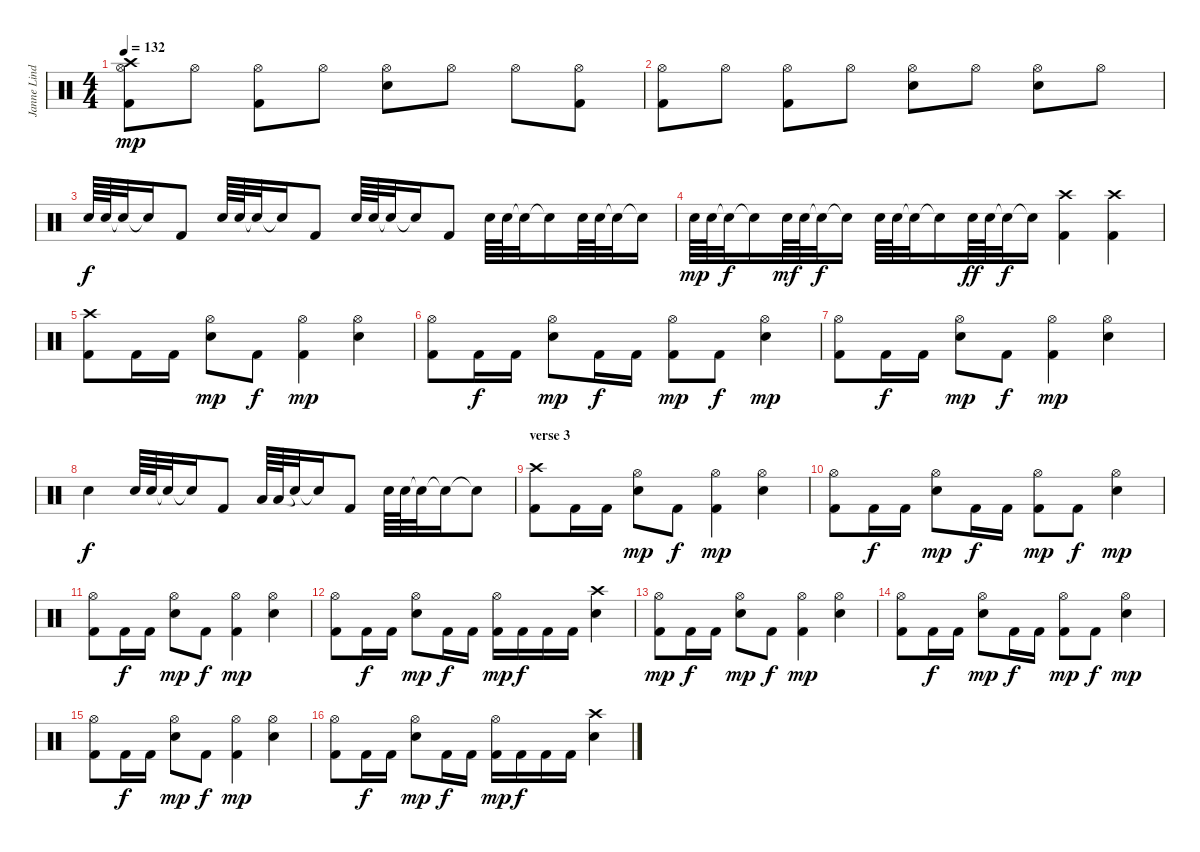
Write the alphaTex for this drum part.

\track ("Janne Lindh" "Janne Lind") {instrument percussion}
\staff {score}
\articulation defaults
\ts (4 4)
\tempo 132
\clef neutral
\ks c
("Kick (hit) 2" "Hi-Hat (open)" "Crash high (hit)").8{dy mp} "Hi-Hat (open)".8 ("Kick (hit) 2" "Hi-Hat (open)").8 "Hi-Hat (open)".8 ("Hi-Hat (open)" "Snare (hit) 2").8 "Hi-Hat (open)".8 "Hi-Hat (open)".8 ("Kick (hit) 2" "Hi-Hat (open)").8 |
("Kick (hit) 2" "Hi-Hat (open)").8 "Hi-Hat (open)".8 ("Kick (hit) 2" "Hi-Hat (open)").8 "Hi-Hat (open)".8 ("Hi-Hat (open)" "Snare (hit) 2").8 "Hi-Hat (open)".8 ("Hi-Hat (open)" "Snare (hit) 2").8 "Hi-Hat (open)".8 |
"Snare (hit) 2".64{dy f} "Snare (hit) 2".64 "Snare (hit)"{t}.32 "Snare (hit)"{t}.16 "Kick (hit) 2".8 "Snare (hit) 2".64 "Snare (hit) 2".64 "Snare (hit)"{t}.32 "Snare (hit)"{t}.16 "Kick (hit) 2".8 "Snare (hit) 2".64 "Snare (hit) 2".64 "Snare (hit)"{t}.32 "Snare (hit)"{t}.16 "Kick (hit) 2".8 "Snare (hit) 2".64 "Snare (hit) 2".64 "Snare (hit)"{t}.32 "Snare (hit)"{t}.16 "Snare (hit) 2".64 "Snare (hit) 2".64 "Snare (hit)"{t}.32 "Snare (hit)"{t}.16 |
"Snare (hit) 2".64{dy mp} "Snare (hit) 2".64 "Snare (hit)"{t}.32{dy f} "Snare (hit)"{t}.16 "Snare (hit) 2".64{dy mf} "Snare (hit) 2".64 "Snare (hit)"{t}.32{dy f} "Snare (hit)"{t}.16 "Snare (hit) 2".64 "Snare (hit) 2".64 "Snare (hit)"{t}.32 "Snare (hit)"{t}.16 "Snare (hit) 2".64{dy ff} "Snare (hit) 2".64 "Snare (hit)"{t}.32{dy f} "Snare (hit)"{t}.16 ("Kick (hit) 2" "Crash high (hit)").4 ("Kick (hit) 2" "Crash high (hit)").4 |
("Kick (hit) 2" "Crash high (hit)").8 "Kick (hit) 2".16 "Kick (hit) 2".16 ("Hi-Hat (open)" "Snare (hit) 2").8{dy mp} "Kick (hit) 2".8{dy f} ("Kick (hit) 2" "Hi-Hat (open)").4{dy mp} ("Hi-Hat (open)" "Snare (hit) 2").4 |
("Kick (hit) 2" "Hi-Hat (open)").8 "Kick (hit) 2".16{dy f} "Kick (hit) 2".16 ("Hi-Hat (open)" "Snare (hit) 2").8{dy mp} "Kick (hit) 2".16{dy f} "Kick (hit) 2".16 ("Kick (hit) 2" "Hi-Hat (open)").8{dy mp} "Kick (hit) 2".8{dy f} ("Hi-Hat (open)" "Snare (hit) 2").4{dy mp} |
("Kick (hit) 2" "Hi-Hat (open)").8 "Kick (hit) 2".16{dy f} "Kick (hit) 2".16 ("Hi-Hat (open)" "Snare (hit) 2").8{dy mp} "Kick (hit) 2".8{dy f} ("Kick (hit) 2" "Hi-Hat (open)").4{dy mp} ("Hi-Hat (open)" "Snare (hit) 2").4 |
"Snare (hit) 2".4{dy f} "Snare (hit) 2".64 "Snare (hit) 2".64 "Snare (hit)"{t}.32 "Snare (hit)"{t}.16 "Kick (hit) 2".8 "Low Tom (hit)".64 "Low Tom (hit)".64 "Snare (hit)"{t}.32 "Snare (hit)"{t}.16 "Kick (hit) 2".8 "Snare (hit) 2".64 "Snare (hit) 2".64 "Snare (hit)"{t}.32 "Snare (hit)"{t}.16 "Snare (hit)"{t}.8 |
\section ("" "verse 3")
("Kick (hit) 2" "Crash high (hit)").8 "Kick (hit) 2".16 "Kick (hit) 2".16 ("Hi-Hat (open)" "Snare (hit) 2").8{dy mp} "Kick (hit) 2".8{dy f} ("Kick (hit) 2" "Hi-Hat (open)").4{dy mp} ("Hi-Hat (open)" "Snare (hit) 2").4 |
("Kick (hit) 2" "Hi-Hat (open)").8 "Kick (hit) 2".16{dy f} "Kick (hit) 2".16 ("Hi-Hat (open)" "Snare (hit) 2").8{dy mp} "Kick (hit) 2".16{dy f} "Kick (hit) 2".16 ("Kick (hit) 2" "Hi-Hat (open)").8{dy mp} "Kick (hit) 2".8{dy f} ("Hi-Hat (open)" "Snare (hit) 2").4{dy mp} |
("Kick (hit) 2" "Hi-Hat (open)").8 "Kick (hit) 2".16{dy f} "Kick (hit) 2".16 ("Hi-Hat (open)" "Snare (hit) 2").8{dy mp} "Kick (hit) 2".8{dy f} ("Kick (hit) 2" "Hi-Hat (open)").4{dy mp} ("Hi-Hat (open)" "Snare (hit) 2").4 |
("Kick (hit) 2" "Hi-Hat (open)").8 "Kick (hit) 2".16{dy f} "Kick (hit) 2".16 ("Hi-Hat (open)" "Snare (hit) 2").8{dy mp} "Kick (hit) 2".16{dy f} "Kick (hit) 2".16 ("Kick (hit) 2" "Hi-Hat (open)").16{dy mp} "Kick (hit) 2".16{dy f} "Kick (hit) 2".16 "Kick (hit) 2".16 ("Crash high (hit)" "Snare (hit) 2").4 |
("Kick (hit) 2" "Hi-Hat (open)").8{dy mp} "Kick (hit) 2".16{dy f} "Kick (hit) 2".16 ("Hi-Hat (open)" "Snare (hit) 2").8{dy mp} "Kick (hit) 2".8{dy f} ("Kick (hit) 2" "Hi-Hat (open)").4{dy mp} ("Hi-Hat (open)" "Snare (hit) 2").4 |
("Kick (hit) 2" "Hi-Hat (open)").8 "Kick (hit) 2".16{dy f} "Kick (hit) 2".16 ("Hi-Hat (open)" "Snare (hit) 2").8{dy mp} "Kick (hit) 2".16{dy f} "Kick (hit) 2".16 ("Kick (hit) 2" "Hi-Hat (open)").8{dy mp} "Kick (hit) 2".8{dy f} ("Hi-Hat (open)" "Snare (hit) 2").4{dy mp} |
("Kick (hit) 2" "Hi-Hat (open)").8 "Kick (hit) 2".16{dy f} "Kick (hit) 2".16 ("Hi-Hat (open)" "Snare (hit) 2").8{dy mp} "Kick (hit) 2".8{dy f} ("Kick (hit) 2" "Hi-Hat (open)").4{dy mp} ("Hi-Hat (open)" "Snare (hit) 2").4 |
("Kick (hit) 2" "Hi-Hat (open)").8 "Kick (hit) 2".16{dy f} "Kick (hit) 2".16 ("Hi-Hat (open)" "Snare (hit) 2").8{dy mp} "Kick (hit) 2".16{dy f} "Kick (hit) 2".16 ("Kick (hit) 2" "Hi-Hat (open)").16{dy mp} "Kick (hit) 2".16{dy f} "Kick (hit) 2".16 "Kick (hit) 2".16 ("Crash high (hit)" "Snare (hit) 2").4
